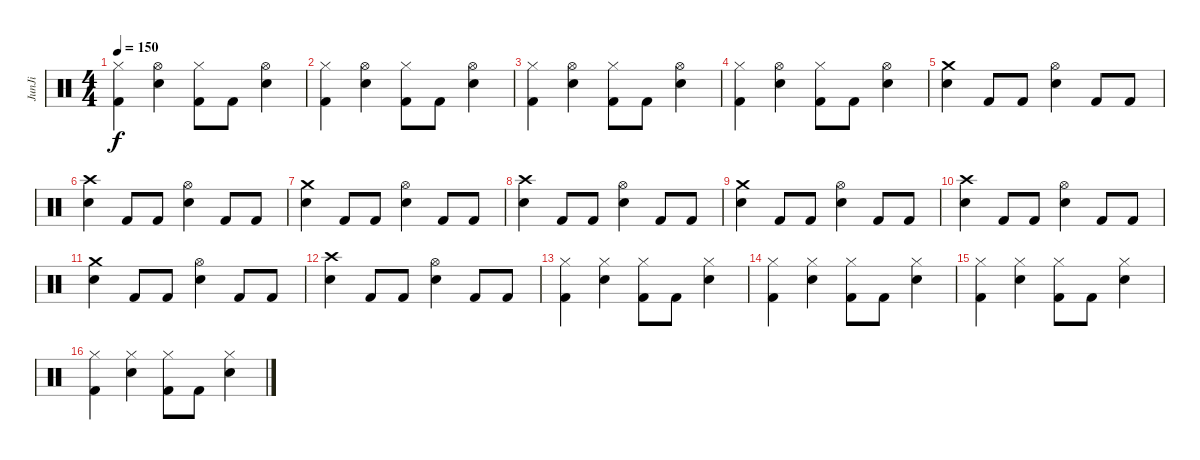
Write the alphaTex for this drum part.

\track ("JunJi" "JunJi") {instrument percussion}
\staff {score}
\articulation defaults
\ts (4 4)
\tempo 150
\clef neutral
\ks c
("Hi-Hat (closed)" "Kick (hit) 2").4{dy f} ("Electric Snare (hit)" "Hi-Hat (open)").4 ("Hi-Hat (closed)" "Kick (hit) 2").8 "Kick (hit) 2".8 ("Electric Snare (hit)" "Hi-Hat (open)").4 |
("Hi-Hat (closed)" "Kick (hit) 2").4 ("Electric Snare (hit)" "Hi-Hat (open)").4 ("Hi-Hat (closed)" "Kick (hit) 2").8 "Kick (hit) 2".8 ("Electric Snare (hit)" "Hi-Hat (open)").4 |
("Hi-Hat (closed)" "Kick (hit) 2").4 ("Electric Snare (hit)" "Hi-Hat (open)").4 ("Hi-Hat (closed)" "Kick (hit) 2").8 "Kick (hit) 2".8 ("Electric Snare (hit)" "Hi-Hat (open)").4 |
("Hi-Hat (closed)" "Kick (hit) 2").4 ("Electric Snare (hit)" "Hi-Hat (open)").4 ("Hi-Hat (closed)" "Kick (hit) 2").8 "Kick (hit) 2".8 ("Electric Snare (hit)" "Hi-Hat (open)").4 |
("Crash medium (hit)" "Electric Snare (hit)").4 "Kick (hit) 2".8 "Kick (hit) 2".8 ("Hi-Hat (open)" "Electric Snare (hit)").4 "Kick (hit) 2".8 "Kick (hit) 2".8 |
("Crash high (hit)" "Electric Snare (hit)").4 "Kick (hit) 2".8 "Kick (hit) 2".8 ("Hi-Hat (open)" "Electric Snare (hit)").4 "Kick (hit) 2".8 "Kick (hit) 2".8 |
("Crash medium (hit)" "Electric Snare (hit)").4 "Kick (hit) 2".8 "Kick (hit) 2".8 ("Hi-Hat (open)" "Electric Snare (hit)").4 "Kick (hit) 2".8 "Kick (hit) 2".8 |
("Crash high (hit)" "Electric Snare (hit)").4 "Kick (hit) 2".8 "Kick (hit) 2".8 ("Hi-Hat (open)" "Electric Snare (hit)").4 "Kick (hit) 2".8 "Kick (hit) 2".8 |
("Crash medium (hit)" "Electric Snare (hit)").4 "Kick (hit) 2".8 "Kick (hit) 2".8 ("Hi-Hat (open)" "Electric Snare (hit)").4 "Kick (hit) 2".8 "Kick (hit) 2".8 |
("Crash high (hit)" "Electric Snare (hit)").4 "Kick (hit) 2".8 "Kick (hit) 2".8 ("Hi-Hat (open)" "Electric Snare (hit)").4 "Kick (hit) 2".8 "Kick (hit) 2".8 |
("Crash medium (hit)" "Electric Snare (hit)").4 "Kick (hit) 2".8 "Kick (hit) 2".8 ("Hi-Hat (open)" "Electric Snare (hit)").4 "Kick (hit) 2".8 "Kick (hit) 2".8 |
("Crash high (hit)" "Electric Snare (hit)").4 "Kick (hit) 2".8 "Kick (hit) 2".8 ("Hi-Hat (open)" "Electric Snare (hit)").4 "Kick (hit) 2".8 "Kick (hit) 2".8 |
("Hi-Hat (closed)" "Kick (hit) 2").4 ("Electric Snare (hit)" "Hi-Hat (closed)").4 ("Hi-Hat (closed)" "Kick (hit) 2").8 "Kick (hit) 2".8 ("Electric Snare (hit)" "Hi-Hat (closed)").4 |
("Hi-Hat (closed)" "Kick (hit) 2").4 ("Electric Snare (hit)" "Hi-Hat (closed)").4 ("Hi-Hat (closed)" "Kick (hit) 2").8 "Kick (hit) 2".8 ("Electric Snare (hit)" "Hi-Hat (closed)").4 |
("Hi-Hat (closed)" "Kick (hit) 2").4 ("Electric Snare (hit)" "Hi-Hat (closed)").4 ("Hi-Hat (closed)" "Kick (hit) 2").8 "Kick (hit) 2".8 ("Electric Snare (hit)" "Hi-Hat (closed)").4 |
("Hi-Hat (closed)" "Kick (hit) 2").4 ("Electric Snare (hit)" "Hi-Hat (closed)").4 ("Hi-Hat (closed)" "Kick (hit) 2").8 "Kick (hit) 2".8 ("Electric Snare (hit)" "Hi-Hat (closed)").4
